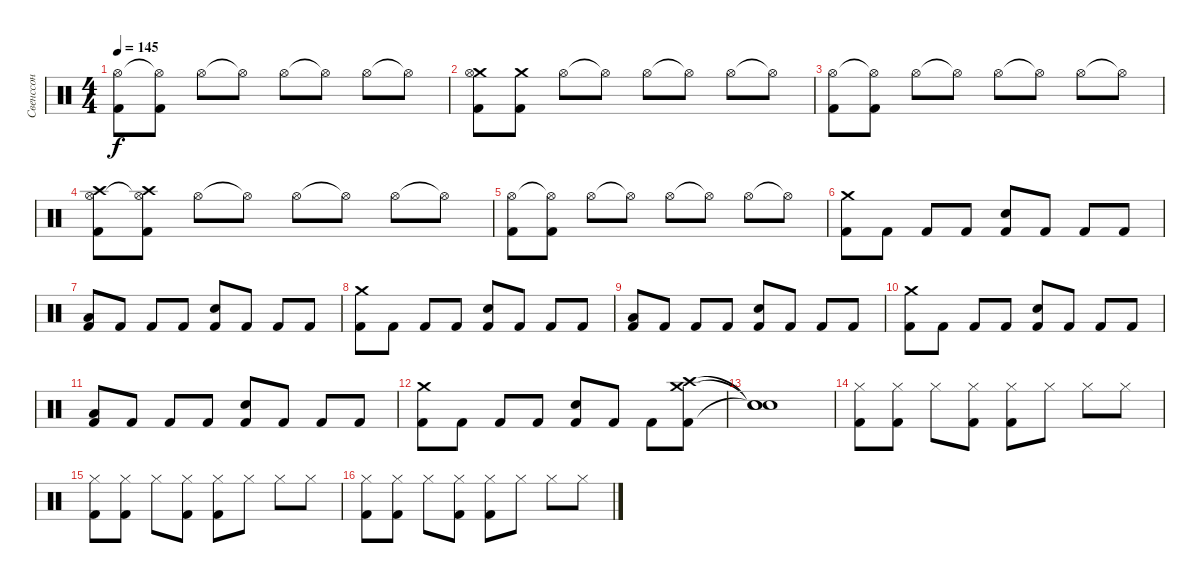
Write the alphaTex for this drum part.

\track ("Свенссон" "Свенссон") {instrument percussion}
\staff {score}
\articulation defaults
\ts (4 4)
\tempo 145
\clef neutral
\ks c
("Hi-Hat (open)" "Kick (hit) 2").8{dy f} ("Hi-Hat (open)"{t} "Kick (hit) 2").8 "Hi-Hat (open)".8 "Hi-Hat (open)"{t}.8 "Hi-Hat (open)".8 "Hi-Hat (open)"{t}.8 "Hi-Hat (open)".8 "Hi-Hat (open)"{t}.8 |
("Crash medium (hit)" "Hi-Hat (open)" "Kick (hit) 2").8 ("Crash medium (hit)" "Kick (hit) 2").8 "Hi-Hat (open)".8 "Hi-Hat (open)"{t}.8 "Hi-Hat (open)".8 "Hi-Hat (open)"{t}.8 "Hi-Hat (open)".8 "Hi-Hat (open)"{t}.8 |
("Hi-Hat (open)" "Kick (hit) 2").8 ("Hi-Hat (open)"{t} "Kick (hit) 2").8 "Hi-Hat (open)".8 "Hi-Hat (open)"{t}.8 "Hi-Hat (open)".8 "Hi-Hat (open)"{t}.8 "Hi-Hat (open)".8 "Hi-Hat (open)"{t}.8 |
("Crash high (hit)" "Hi-Hat (open)" "Kick (hit) 2").8 ("Crash high (hit)" "Hi-Hat (open)"{t} "Kick (hit) 2").8 "Hi-Hat (open)".8 "Hi-Hat (open)"{t}.8 "Hi-Hat (open)".8 "Hi-Hat (open)"{t}.8 "Hi-Hat (open)".8 "Hi-Hat (open)"{t}.8 |
("Hi-Hat (open)" "Kick (hit) 2").8 ("Hi-Hat (open)"{t} "Kick (hit) 2").8 "Hi-Hat (open)".8 "Hi-Hat (open)"{t}.8 "Hi-Hat (open)".8 "Hi-Hat (open)"{t}.8 "Hi-Hat (open)".8 "Hi-Hat (open)"{t}.8 |
("Crash medium (hit)" "Kick (hit) 2").8 "Kick (hit) 2".8 "Kick (hit) 2".8 "Kick (hit) 2".8 ("Snare (hit) 2" "Kick (hit) 2").8 "Kick (hit) 2".8 "Kick (hit) 2".8 "Kick (hit) 2".8 |
("Low Floor Tom (hit)" "Kick (hit) 2").8 "Kick (hit) 2".8 "Kick (hit) 2".8 "Kick (hit) 2".8 ("Snare (hit) 2" "Kick (hit) 2").8 "Kick (hit) 2".8 "Kick (hit) 2".8 "Kick (hit) 2".8 |
("Crash medium (hit)" "Kick (hit) 2").8 "Kick (hit) 2".8 "Kick (hit) 2".8 "Kick (hit) 2".8 ("Snare (hit) 2" "Kick (hit) 2").8 "Kick (hit) 2".8 "Kick (hit) 2".8 "Kick (hit) 2".8 |
("Low Floor Tom (hit)" "Kick (hit) 2").8 "Kick (hit) 2".8 "Kick (hit) 2".8 "Kick (hit) 2".8 ("Snare (hit) 2" "Kick (hit) 2").8 "Kick (hit) 2".8 "Kick (hit) 2".8 "Kick (hit) 2".8 |
("Crash medium (hit)" "Kick (hit) 2").8 "Kick (hit) 2".8 "Kick (hit) 2".8 "Kick (hit) 2".8 ("Snare (hit) 2" "Kick (hit) 2").8 "Kick (hit) 2".8 "Kick (hit) 2".8 "Kick (hit) 2".8 |
("Low Floor Tom (hit)" "Kick (hit) 2").8 "Kick (hit) 2".8 "Kick (hit) 2".8 "Kick (hit) 2".8 ("Snare (hit) 2" "Kick (hit) 2").8 "Kick (hit) 2".8 "Kick (hit) 2".8 "Kick (hit) 2".8 |
("Crash medium (hit)" "Kick (hit) 2").8 "Kick (hit) 2".8 "Kick (hit) 2".8 "Kick (hit) 2".8 ("Snare (hit) 2" "Kick (hit) 2").8 "Kick (hit) 2".8 "Kick (hit) 2".8 ("Crash high (hit)" "Crash medium (hit)" "Kick (hit) 2").8 |
("Snare (hit)"{t} "Snare (hit)"{t} "Snare (hit)"{t}).1 |
("Hi-Hat (closed)" "Kick (hit) 2").8 ("Hi-Hat (closed)" "Kick (hit) 2").8 "Hi-Hat (closed)".8 ("Hi-Hat (closed)" "Kick (hit) 2").8 ("Hi-Hat (closed)" "Kick (hit) 2").8 "Hi-Hat (closed)".8 "Hi-Hat (closed)".8 "Hi-Hat (closed)".8 |
("Hi-Hat (closed)" "Kick (hit) 2").8 ("Hi-Hat (closed)" "Kick (hit) 2").8 "Hi-Hat (closed)".8 ("Hi-Hat (closed)" "Kick (hit) 2").8 ("Hi-Hat (closed)" "Kick (hit) 2").8 "Hi-Hat (closed)".8 "Hi-Hat (closed)".8 "Hi-Hat (closed)".8 |
("Hi-Hat (closed)" "Kick (hit) 2").8 ("Hi-Hat (closed)" "Kick (hit) 2").8 "Hi-Hat (closed)".8 ("Hi-Hat (closed)" "Kick (hit) 2").8 ("Hi-Hat (closed)" "Kick (hit) 2").8 "Hi-Hat (closed)".8 "Hi-Hat (closed)".8 "Hi-Hat (closed)".8
